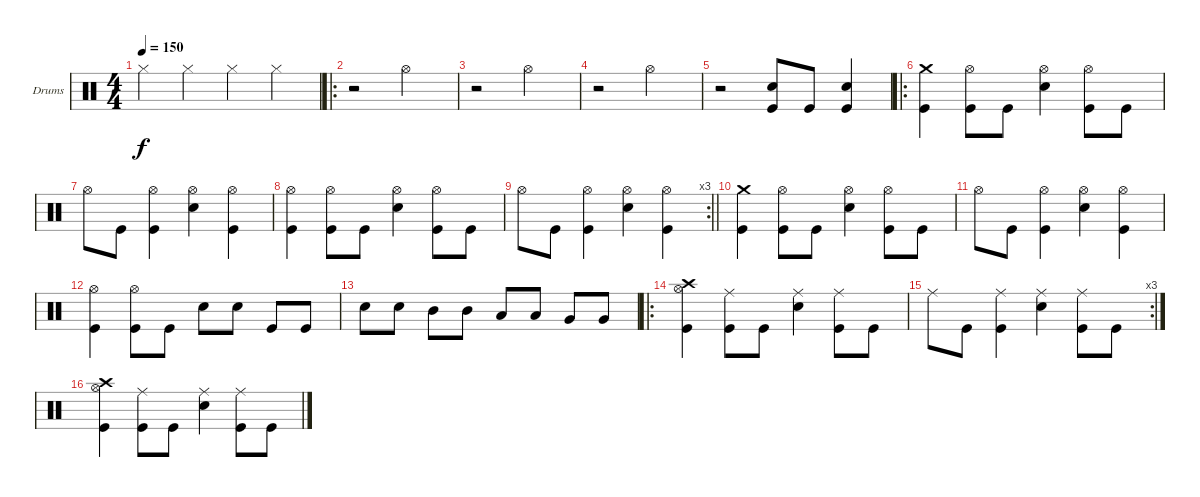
\bracketExtendMode groupsimilarinstruments
\firstSystemTrackNameOrientation horizontal
\otherSystemsTrackNameOrientation horizontal
\track ("Drumkit" "Drums") {instrument percussion}
\staff {score}
\articulation defaults
\ts (4 4)
\beaming (8 2 2 2 2)
\tempo 150
\clef neutral
\ks c "Hi-Hat (closed)".4{dy f} "Hi-Hat (closed)".4 "Hi-Hat (closed)".4 "Hi-Hat (closed)".4
|
\ro
r.2 "Hi-Hat (open)".2 |
r.2 "Hi-Hat (open)".2 |
r.2 "Hi-Hat (open)".2 |
r.2 ("Snare (hit) 2" "Kick (hit)").8 "Kick (hit)".8 ("Snare (hit) 2" "Kick (hit)").4 |
\ro
("Crash medium (hit)" "Kick (hit)").4 ("Hi-Hat (open)" "Kick (hit)").8 "Kick (hit)".8 ("Hi-Hat (open)" "Snare (hit) 2").4 ("Hi-Hat (open)" "Kick (hit)").8 "Kick (hit)".8 |
"Hi-Hat (open)".8 "Kick (hit)".8 ("Hi-Hat (open)" "Kick (hit)").4 ("Hi-Hat (open)" "Snare (hit) 2").4 ("Hi-Hat (open)" "Kick (hit)").4 |
("Hi-Hat (open)" "Kick (hit)").4 ("Hi-Hat (open)" "Kick (hit)").8 "Kick (hit)".8 ("Hi-Hat (open)" "Snare (hit) 2").4 ("Hi-Hat (open)" "Kick (hit)").8 "Kick (hit)".8 |
\rc 3
\barLineRight lightlight "Hi-Hat (open)".8 "Kick (hit)".8
("Hi-Hat (open)" "Kick (hit)").4 ("Hi-Hat (open)" "Snare (hit) 2").4 ("Hi-Hat (open)" "Kick (hit)").4 |
("Crash medium (hit)" "Kick (hit)").4 ("Hi-Hat (open)" "Kick (hit)").8 "Kick (hit)".8 ("Hi-Hat (open)" "Snare (hit) 2").4 ("Hi-Hat (open)" "Kick (hit)").8 "Kick (hit)".8 |
"Hi-Hat (open)".8 "Kick (hit)".8 ("Hi-Hat (open)" "Kick (hit)").4 ("Hi-Hat (open)" "Snare (hit) 2").4 ("Hi-Hat (open)" "Kick (hit)").4 |
("Hi-Hat (open)" "Kick (hit)").4 ("Hi-Hat (open)" "Kick (hit)").8 "Kick (hit)".8 "Snare (hit) 2".8 "Snare (hit) 2".8 "Kick (hit)".8 "Kick (hit)".8 |
"Snare (hit) 2".8 "Snare (hit) 2".8 "Mid Tom (hit)".8 "Mid Tom (hit)".8 "Low Tom (hit)".8 "Low Tom (hit)".8 "Very Low Tom (hit)".8 "Very Low Tom (hit)".8 |
\ro
("Hi-Hat (open)" "Crash high (hit)" "Kick (hit)").4 ("Ride (middle)" "Kick (hit)").8 "Kick (hit)".8 ("Ride (middle)" "Snare (hit) 2").4 ("Ride (middle)" "Kick (hit)").8 "Kick (hit)".8 |
\rc 3 "Ride (middle)".8 "Kick (hit)".8
("Ride (middle)" "Kick (hit)").4 ("Ride (middle)" "Snare (hit) 2").4 ("Ride (middle)" "Kick (hit)").8 "Kick (hit)".8 |
("Hi-Hat (open)" "Crash high (hit)" "Kick (hit)").4 ("Ride (middle)" "Kick (hit)").8 "Kick (hit)".8 ("Ride (middle)" "Snare (hit) 2").4 ("Ride (middle)" "Kick (hit)").8 "Kick (hit)".8
